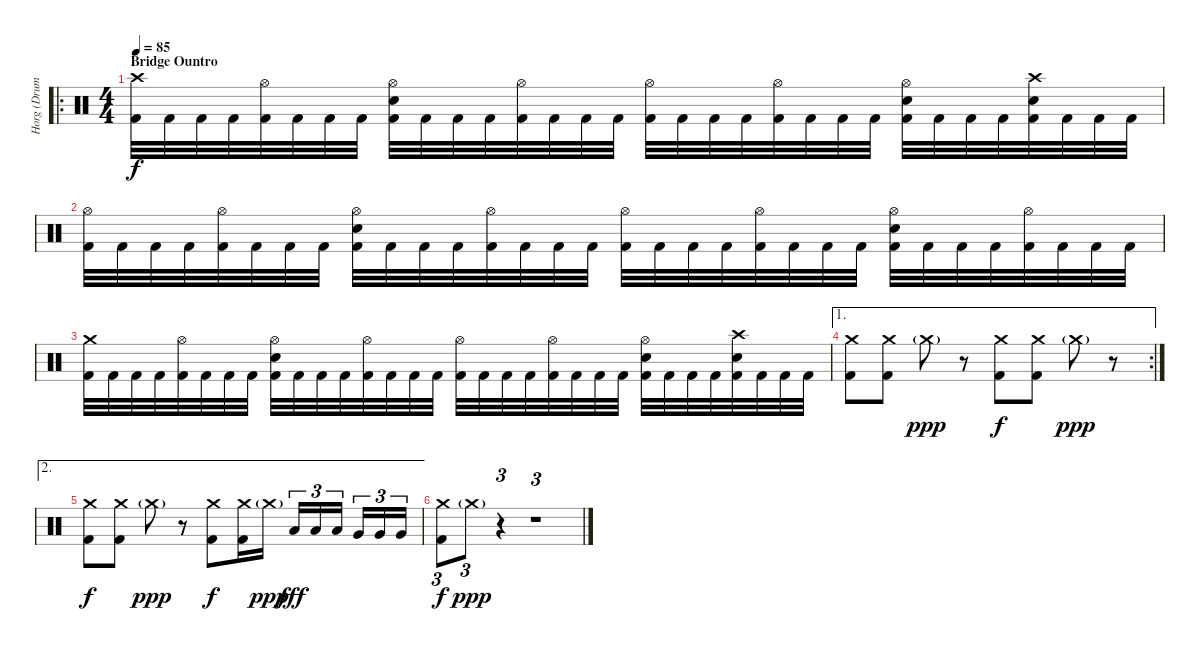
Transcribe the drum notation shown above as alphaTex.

\track ("Horg (Drums)" "Horg (Drum") {instrument percussion}
\staff {score}
\articulation defaults
\ro
\ts (4 4)
\section ("" "Bridge Ountro")
\tempo 85
\clef neutral
\ks c
("Crash high (hit)" "Kick (hit) 2").32{dy f volume 15} "Kick (hit) 2".32 "Kick (hit) 2".32 "Kick (hit) 2".32 ("Hi-Hat (open)" "Kick (hit) 2").32 "Kick (hit) 2".32 "Kick (hit) 2".32 "Kick (hit) 2".32 ("Hi-Hat (open)" "Electric Snare (hit)" "Kick (hit) 2").32 "Kick (hit) 2".32 "Kick (hit) 2".32 "Kick (hit) 2".32 ("Hi-Hat (open)" "Kick (hit) 2").32 "Kick (hit) 2".32 "Kick (hit) 2".32 "Kick (hit) 2".32 ("Hi-Hat (open)" "Kick (hit) 2").32 "Kick (hit) 2".32 "Kick (hit) 2".32 "Kick (hit) 2".32 ("Hi-Hat (open)" "Kick (hit) 2").32 "Kick (hit) 2".32 "Kick (hit) 2".32 "Kick (hit) 2".32 ("Hi-Hat (open)" "Electric Snare (hit)" "Kick (hit) 2").32 "Kick (hit) 2".32 "Kick (hit) 2".32 "Kick (hit) 2".32 ("Crash high (hit)" "Electric Snare (hit)" "Kick (hit) 2").32 "Kick (hit) 2".32 "Kick (hit) 2".32 "Kick (hit) 2".32 |
("Hi-Hat (open)" "Kick (hit) 2").32 "Kick (hit) 2".32 "Kick (hit) 2".32 "Kick (hit) 2".32 ("Hi-Hat (open)" "Kick (hit) 2").32 "Kick (hit) 2".32 "Kick (hit) 2".32 "Kick (hit) 2".32 ("Hi-Hat (open)" "Electric Snare (hit)" "Kick (hit) 2").32 "Kick (hit) 2".32 "Kick (hit) 2".32 "Kick (hit) 2".32 ("Hi-Hat (open)" "Kick (hit) 2").32 "Kick (hit) 2".32 "Kick (hit) 2".32 "Kick (hit) 2".32 ("Hi-Hat (open)" "Kick (hit) 2").32 "Kick (hit) 2".32 "Kick (hit) 2".32 "Kick (hit) 2".32 ("Hi-Hat (open)" "Kick (hit) 2").32 "Kick (hit) 2".32 "Kick (hit) 2".32 "Kick (hit) 2".32 ("Hi-Hat (open)" "Electric Snare (hit)" "Kick (hit) 2").32 "Kick (hit) 2".32 "Kick (hit) 2".32 "Kick (hit) 2".32 ("Hi-Hat (open)" "Kick (hit) 2").32 "Kick (hit) 2".32 "Kick (hit) 2".32 "Kick (hit) 2".32 |
("Crash medium (hit)" "Kick (hit) 2").32 "Kick (hit) 2".32 "Kick (hit) 2".32 "Kick (hit) 2".32 ("Hi-Hat (open)" "Kick (hit) 2").32 "Kick (hit) 2".32 "Kick (hit) 2".32 "Kick (hit) 2".32 ("Hi-Hat (open)" "Electric Snare (hit)" "Kick (hit) 2").32 "Kick (hit) 2".32 "Kick (hit) 2".32 "Kick (hit) 2".32 ("Hi-Hat (open)" "Kick (hit) 2").32 "Kick (hit) 2".32 "Kick (hit) 2".32 "Kick (hit) 2".32 ("Hi-Hat (open)" "Kick (hit) 2").32 "Kick (hit) 2".32 "Kick (hit) 2".32 "Kick (hit) 2".32 ("Hi-Hat (open)" "Kick (hit) 2").32 "Kick (hit) 2".32 "Kick (hit) 2".32 "Kick (hit) 2".32 ("Hi-Hat (open)" "Electric Snare (hit)" "Kick (hit) 2").32 "Kick (hit) 2".32 "Kick (hit) 2".32 "Kick (hit) 2".32 ("Crash high (hit)" "Electric Snare (hit)" "Kick (hit) 2").32 "Kick (hit) 2".32 "Kick (hit) 2".32 "Kick (hit) 2".32 |
\ae 1
\rc 2
("Crash medium (hit)" "Kick (hit) 2").8 ("Crash medium (hit)" "Kick (hit) 2").8 "Crash medium (hit)"{g}.8{dy ppp volume 0} r.8 ("Crash medium (hit)" "Kick (hit) 2").8{dy f volume 15} ("Crash medium (hit)" "Kick (hit) 2").8 "Crash medium (hit)"{g}.8{dy ppp volume 0} r.8 |
\ae 2
("Crash medium (hit)" "Kick (hit) 2").8{dy f} ("Crash medium (hit)" "Kick (hit) 2").8 "Crash medium (hit)"{g}.8{dy ppp volume 0} r.8 ("Crash medium (hit)" "Kick (hit) 2").8{dy f volume 15} ("Crash medium (hit)" "Kick (hit) 2").16 "Crash medium (hit)"{g}.16{dy ppp volume 0} "Low Tom (hit)".16{tu (3 2) dy fff volume 15} "Low Tom (hit)".16{tu (3 2)} "Low Tom (hit)".16{tu (3 2)} "Very Low Tom (hit)".16{tu (3 2)} "Very Low Tom (hit)".16{tu (3 2)} "Very Low Tom (hit)".16{tu (3 2)} |
("Crash medium (hit)" "Kick (hit) 2").8{tu (3 2) dy f} "Crash medium (hit)"{g}.8{tu (3 2) dy ppp} r.4{tu (3 2) volume 0} r.1{tu (3 2)}
